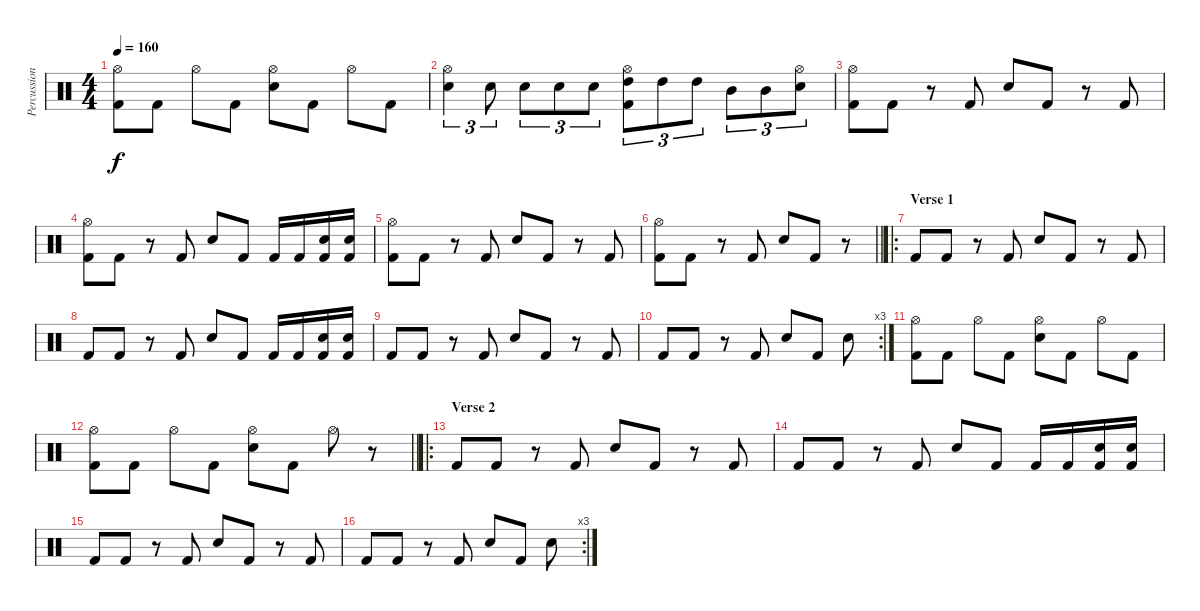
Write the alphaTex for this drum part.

\track ("Percussion" "Percussion") {instrument percussion}
\staff {score}
\articulation defaults
\ts (4 4)
\tempo 160
\clef neutral
\ks c
("Hi-Hat (open)" "Kick (hit) 2").8{dy f} "Kick (hit) 2".8 "Hi-Hat (open)".8 "Kick (hit) 2".8 ("Hi-Hat (open)" "Snare (hit) 2").8 "Kick (hit) 2".8 "Hi-Hat (open)".8 "Kick (hit) 2".8 |
("Hi-Hat (open)" "Snare (hit) 2").4{tu (3 2)} "Snare (hit) 2".8{tu (3 2)} "Snare (hit) 2".8{tu (3 2)} "Snare (hit) 2".8{tu (3 2)} "Snare (hit) 2".8{tu (3 2)} ("Hi-Hat (open)" "High Tom (hit)" "Kick (hit) 2").8{tu (3 2)} "High Tom (hit)".8{tu (3 2)} "High Tom (hit)".8{tu (3 2)} "Mid Tom (hit)".8{tu (3 2)} "Mid Tom (hit)".8{tu (3 2)} ("Hi-Hat (open)" "Snare (hit) 2").8{tu (3 2)} |
("Hi-Hat (open)" "Kick (hit) 2").8 "Kick (hit) 2".8 r.8 "Kick (hit) 2".8 "Snare (hit) 2".8 "Kick (hit) 2".8 r.8 "Kick (hit) 2".8 |
("Hi-Hat (open)" "Kick (hit) 2").8 "Kick (hit) 2".8 r.8 "Kick (hit) 2".8 "Snare (hit) 2".8 "Kick (hit) 2".8 "Kick (hit) 2".16 "Kick (hit) 2".16 ("Electric Snare (hit)" "Kick (hit) 2").16 ("Electric Snare (hit)" "Kick (hit) 2").16 |
("Hi-Hat (open)" "Kick (hit) 2").8 "Kick (hit) 2".8 r.8 "Kick (hit) 2".8 "Snare (hit) 2".8 "Kick (hit) 2".8 r.8 "Kick (hit) 2".8 |
\barLineRight lightlight
("Hi-Hat (open)" "Kick (hit) 2").8 "Kick (hit) 2".8 r.8 "Kick (hit) 2".8 "Snare (hit) 2".8 "Kick (hit) 2".8 r.8 |
\ro
\section ("" "Verse 1")
"Kick (hit) 2".8 "Kick (hit) 2".8 r.8 "Kick (hit) 2".8 "Snare (hit) 2".8 "Kick (hit) 2".8 r.8 "Kick (hit) 2".8 |
"Kick (hit) 2".8 "Kick (hit) 2".8 r.8 "Kick (hit) 2".8 "Snare (hit) 2".8 "Kick (hit) 2".8 "Kick (hit) 2".16 "Kick (hit) 2".16 ("Electric Snare (hit)" "Kick (hit) 2").16 ("Electric Snare (hit)" "Kick (hit) 2").16 |
"Kick (hit) 2".8 "Kick (hit) 2".8 r.8 "Kick (hit) 2".8 "Snare (hit) 2".8 "Kick (hit) 2".8 r.8 "Kick (hit) 2".8 |
\rc 3 "Kick (hit) 2".8 "Kick (hit) 2".8
r.8 "Kick (hit) 2".8 "Snare (hit) 2".8 "Kick (hit) 2".8 "Snare (hit) 2".8 |
("Hi-Hat (open)" "Kick (hit) 2").8 "Kick (hit) 2".8 "Hi-Hat (open)".8 "Kick (hit) 2".8 ("Hi-Hat (open)" "Snare (hit) 2").8 "Kick (hit) 2".8 "Hi-Hat (open)".8 "Kick (hit) 2".8 |
\barLineRight lightlight
("Hi-Hat (open)" "Kick (hit) 2").8 "Kick (hit) 2".8 "Hi-Hat (open)".8 "Kick (hit) 2".8 ("Hi-Hat (open)" "Snare (hit) 2").8 "Kick (hit) 2".8 "Hi-Hat (open)".8 r.8 |
\ro
\section ("" "Verse 2")
"Kick (hit) 2".8 "Kick (hit) 2".8 r.8 "Kick (hit) 2".8 "Snare (hit) 2".8 "Kick (hit) 2".8 r.8 "Kick (hit) 2".8 |
"Kick (hit) 2".8 "Kick (hit) 2".8 r.8 "Kick (hit) 2".8 "Snare (hit) 2".8 "Kick (hit) 2".8 "Kick (hit) 2".16 "Kick (hit) 2".16 ("Electric Snare (hit)" "Kick (hit) 2").16 ("Electric Snare (hit)" "Kick (hit) 2").16 |
"Kick (hit) 2".8 "Kick (hit) 2".8 r.8 "Kick (hit) 2".8 "Snare (hit) 2".8 "Kick (hit) 2".8 r.8 "Kick (hit) 2".8 |
\rc 3 "Kick (hit) 2".8 "Kick (hit) 2".8
r.8 "Kick (hit) 2".8 "Snare (hit) 2".8 "Kick (hit) 2".8 "Snare (hit) 2".8
